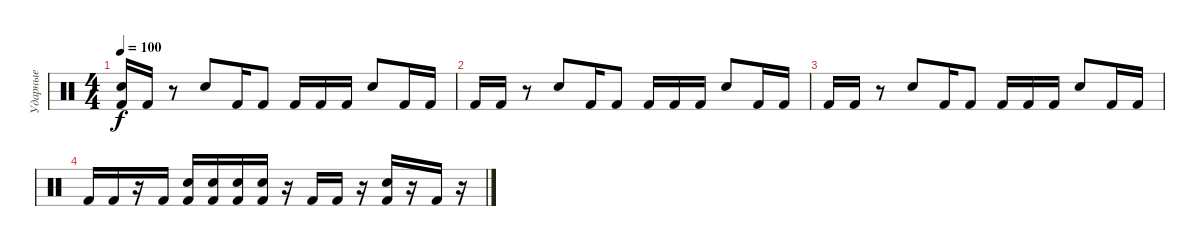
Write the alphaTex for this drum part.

\track ("Ударные" "Ударные") {instrument percussion}
\staff {score}
\articulation defaults
\ts (4 4)
\tempo 100
\clef neutral
\ks c
("Snare (hit) 2" "Kick (hit) 2").16{dy f} "Kick (hit) 2".16 r.8 "Snare (hit) 2".8 "Kick (hit) 2".16 "Kick (hit) 2".8 "Kick (hit) 2".16 "Kick (hit) 2".16 "Kick (hit) 2".16 "Snare (hit) 2".8 "Kick (hit) 2".16 "Kick (hit) 2".16 |
"Kick (hit) 2".16 "Kick (hit) 2".16 r.8 "Snare (hit) 2".8 "Kick (hit) 2".16 "Kick (hit) 2".8 "Kick (hit) 2".16 "Kick (hit) 2".16 "Kick (hit) 2".16 "Snare (hit) 2".8 "Kick (hit) 2".16 "Kick (hit) 2".16 |
"Kick (hit) 2".16 "Kick (hit) 2".16 r.8 "Snare (hit) 2".8 "Kick (hit) 2".16 "Kick (hit) 2".8 "Kick (hit) 2".16 "Kick (hit) 2".16 "Kick (hit) 2".16 "Snare (hit) 2".8 "Kick (hit) 2".16 "Kick (hit) 2".16 |
"Kick (hit) 2".16 "Kick (hit) 2".16 r.16 "Kick (hit) 2".16 ("Snare (hit) 2" "Kick (hit) 2").16 ("Snare (hit) 2" "Kick (hit) 2").16 ("Snare (hit) 2" "Kick (hit) 2").16 ("Snare (hit) 2" "Kick (hit) 2").16 r.16 "Kick (hit) 2".16 "Kick (hit) 2".16 r.16 ("Snare (hit) 2" "Kick (hit) 2").16 r.16 "Kick (hit) 2".16 r.16
